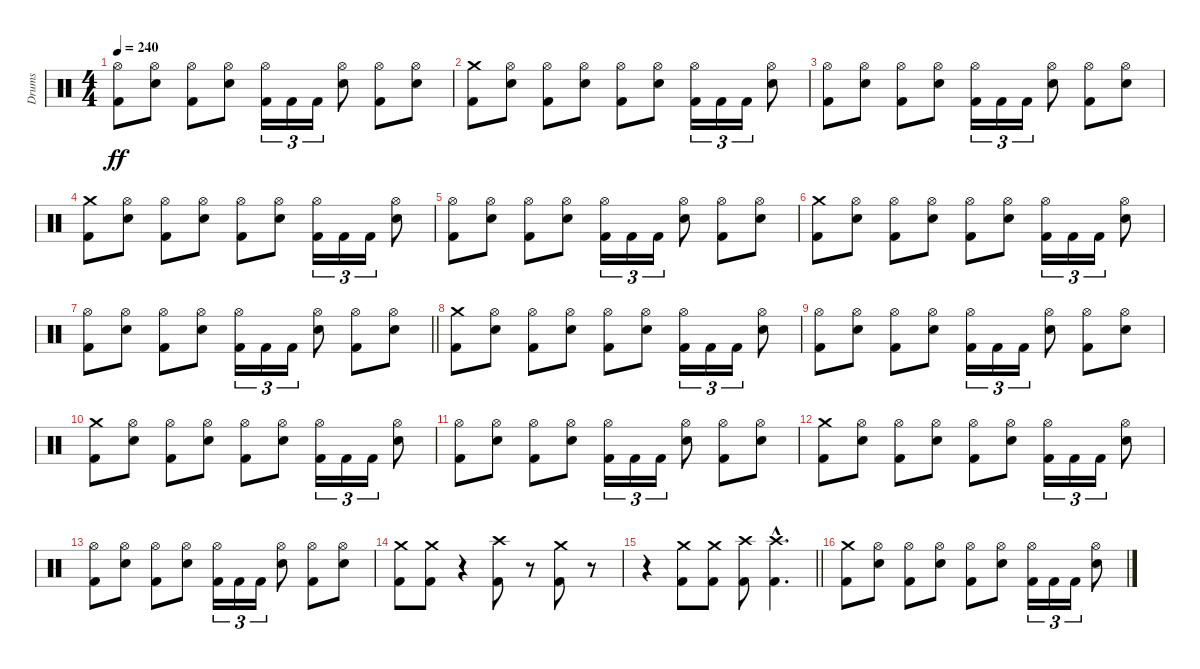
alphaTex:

\track ("Drums" "Drums") {instrument percussion}
\staff {score}
\articulation defaults
\ts (4 4)
\tempo 240
\clef neutral
\ks c
("Hi-Hat (open)" "Kick (hit) 2").8{dy ff} ("Hi-Hat (open)" "Snare (hit) 2").8 ("Hi-Hat (open)" "Kick (hit) 2").8 ("Hi-Hat (open)" "Snare (hit) 2").8 ("Hi-Hat (open)" "Kick (hit) 2").16{tu (3 2)} "Kick (hit) 2".16{tu (3 2)} "Kick (hit) 2".16{tu (3 2)} ("Hi-Hat (open)" "Snare (hit) 2").8 ("Hi-Hat (open)" "Kick (hit) 2").8 ("Hi-Hat (open)" "Snare (hit) 2").8 |
("Crash medium (hit)" "Kick (hit) 2").8 ("Hi-Hat (open)" "Snare (hit) 2").8 ("Hi-Hat (open)" "Kick (hit) 2").8 ("Hi-Hat (open)" "Snare (hit) 2").8 ("Hi-Hat (open)" "Kick (hit) 2").8 ("Hi-Hat (open)" "Snare (hit) 2").8 ("Hi-Hat (open)" "Kick (hit) 2").16{tu (3 2)} "Kick (hit) 2".16{tu (3 2)} "Kick (hit) 2".16{tu (3 2)} ("Hi-Hat (open)" "Snare (hit) 2").8 |
("Hi-Hat (open)" "Kick (hit) 2").8 ("Hi-Hat (open)" "Snare (hit) 2").8 ("Hi-Hat (open)" "Kick (hit) 2").8 ("Hi-Hat (open)" "Snare (hit) 2").8 ("Hi-Hat (open)" "Kick (hit) 2").16{tu (3 2)} "Kick (hit) 2".16{tu (3 2)} "Kick (hit) 2".16{tu (3 2)} ("Hi-Hat (open)" "Snare (hit) 2").8 ("Hi-Hat (open)" "Kick (hit) 2").8 ("Hi-Hat (open)" "Snare (hit) 2").8 |
("Crash medium (hit)" "Kick (hit) 2").8 ("Hi-Hat (open)" "Snare (hit) 2").8 ("Hi-Hat (open)" "Kick (hit) 2").8 ("Hi-Hat (open)" "Snare (hit) 2").8 ("Hi-Hat (open)" "Kick (hit) 2").8 ("Hi-Hat (open)" "Snare (hit) 2").8 ("Hi-Hat (open)" "Kick (hit) 2").16{tu (3 2)} "Kick (hit) 2".16{tu (3 2)} "Kick (hit) 2".16{tu (3 2)} ("Hi-Hat (open)" "Snare (hit) 2").8 |
("Hi-Hat (open)" "Kick (hit) 2").8 ("Hi-Hat (open)" "Snare (hit) 2").8 ("Hi-Hat (open)" "Kick (hit) 2").8 ("Hi-Hat (open)" "Snare (hit) 2").8 ("Hi-Hat (open)" "Kick (hit) 2").16{tu (3 2)} "Kick (hit) 2".16{tu (3 2)} "Kick (hit) 2".16{tu (3 2)} ("Hi-Hat (open)" "Snare (hit) 2").8 ("Hi-Hat (open)" "Kick (hit) 2").8 ("Hi-Hat (open)" "Snare (hit) 2").8 |
("Crash medium (hit)" "Kick (hit) 2").8 ("Hi-Hat (open)" "Snare (hit) 2").8 ("Hi-Hat (open)" "Kick (hit) 2").8 ("Hi-Hat (open)" "Snare (hit) 2").8 ("Hi-Hat (open)" "Kick (hit) 2").8 ("Hi-Hat (open)" "Snare (hit) 2").8 ("Hi-Hat (open)" "Kick (hit) 2").16{tu (3 2)} "Kick (hit) 2".16{tu (3 2)} "Kick (hit) 2".16{tu (3 2)} ("Hi-Hat (open)" "Snare (hit) 2").8 |
\barLineRight lightlight
("Hi-Hat (open)" "Kick (hit) 2").8 ("Hi-Hat (open)" "Snare (hit) 2").8 ("Hi-Hat (open)" "Kick (hit) 2").8 ("Hi-Hat (open)" "Snare (hit) 2").8 ("Hi-Hat (open)" "Kick (hit) 2").16{tu (3 2)} "Kick (hit) 2".16{tu (3 2)} "Kick (hit) 2".16{tu (3 2)} ("Hi-Hat (open)" "Snare (hit) 2").8 ("Hi-Hat (open)" "Kick (hit) 2").8 ("Hi-Hat (open)" "Snare (hit) 2").8 |
("Crash medium (hit)" "Kick (hit) 2").8 ("Hi-Hat (open)" "Snare (hit) 2").8 ("Hi-Hat (open)" "Kick (hit) 2").8 ("Hi-Hat (open)" "Snare (hit) 2").8 ("Hi-Hat (open)" "Kick (hit) 2").8 ("Hi-Hat (open)" "Snare (hit) 2").8 ("Hi-Hat (open)" "Kick (hit) 2").16{tu (3 2)} "Kick (hit) 2".16{tu (3 2)} "Kick (hit) 2".16{tu (3 2)} ("Hi-Hat (open)" "Snare (hit) 2").8 |
("Hi-Hat (open)" "Kick (hit) 2").8 ("Hi-Hat (open)" "Snare (hit) 2").8 ("Hi-Hat (open)" "Kick (hit) 2").8 ("Hi-Hat (open)" "Snare (hit) 2").8 ("Hi-Hat (open)" "Kick (hit) 2").16{tu (3 2)} "Kick (hit) 2".16{tu (3 2)} "Kick (hit) 2".16{tu (3 2)} ("Hi-Hat (open)" "Snare (hit) 2").8 ("Hi-Hat (open)" "Kick (hit) 2").8 ("Hi-Hat (open)" "Snare (hit) 2").8 |
("Crash medium (hit)" "Kick (hit) 2").8 ("Hi-Hat (open)" "Snare (hit) 2").8 ("Hi-Hat (open)" "Kick (hit) 2").8 ("Hi-Hat (open)" "Snare (hit) 2").8 ("Hi-Hat (open)" "Kick (hit) 2").8 ("Hi-Hat (open)" "Snare (hit) 2").8 ("Hi-Hat (open)" "Kick (hit) 2").16{tu (3 2)} "Kick (hit) 2".16{tu (3 2)} "Kick (hit) 2".16{tu (3 2)} ("Hi-Hat (open)" "Snare (hit) 2").8 |
("Hi-Hat (open)" "Kick (hit) 2").8 ("Hi-Hat (open)" "Snare (hit) 2").8 ("Hi-Hat (open)" "Kick (hit) 2").8 ("Hi-Hat (open)" "Snare (hit) 2").8 ("Hi-Hat (open)" "Kick (hit) 2").16{tu (3 2)} "Kick (hit) 2".16{tu (3 2)} "Kick (hit) 2".16{tu (3 2)} ("Hi-Hat (open)" "Snare (hit) 2").8 ("Hi-Hat (open)" "Kick (hit) 2").8 ("Hi-Hat (open)" "Snare (hit) 2").8 |
("Crash medium (hit)" "Kick (hit) 2").8 ("Hi-Hat (open)" "Snare (hit) 2").8 ("Hi-Hat (open)" "Kick (hit) 2").8 ("Hi-Hat (open)" "Snare (hit) 2").8 ("Hi-Hat (open)" "Kick (hit) 2").8 ("Hi-Hat (open)" "Snare (hit) 2").8 ("Hi-Hat (open)" "Kick (hit) 2").16{tu (3 2)} "Kick (hit) 2".16{tu (3 2)} "Kick (hit) 2".16{tu (3 2)} ("Hi-Hat (open)" "Snare (hit) 2").8 |
("Hi-Hat (open)" "Kick (hit) 2").8 ("Hi-Hat (open)" "Snare (hit) 2").8 ("Hi-Hat (open)" "Kick (hit) 2").8 ("Hi-Hat (open)" "Snare (hit) 2").8 ("Hi-Hat (open)" "Kick (hit) 2").16{tu (3 2)} "Kick (hit) 2".16{tu (3 2)} "Kick (hit) 2".16{tu (3 2)} ("Hi-Hat (open)" "Snare (hit) 2").8 ("Hi-Hat (open)" "Kick (hit) 2").8 ("Hi-Hat (open)" "Snare (hit) 2").8 |
("Crash medium (hit)" "Kick (hit) 2").8 ("Crash medium (hit)" "Kick (hit) 2").8 r.4 ("Crash high (hit)" "Kick (hit) 2").8 r.8 ("Crash medium (hit)" "Kick (hit) 2").8 r.8 |
\barLineRight lightlight
r.4 ("Crash medium (hit)" "Kick (hit) 2").8 ("Crash medium (hit)" "Kick (hit) 2").8 ("Crash high (hit)" "Kick (hit) 2").8 ("Crash high (hit)"{hac} "Kick (hit) 2"{hac}).4{d} |
("Crash medium (hit)" "Kick (hit) 2").8 ("Hi-Hat (open)" "Snare (hit) 2").8 ("Hi-Hat (open)" "Kick (hit) 2").8 ("Hi-Hat (open)" "Snare (hit) 2").8 ("Hi-Hat (open)" "Kick (hit) 2").8 ("Hi-Hat (open)" "Snare (hit) 2").8 ("Hi-Hat (open)" "Kick (hit) 2").16{tu (3 2)} "Kick (hit) 2".16{tu (3 2)} "Kick (hit) 2".16{tu (3 2)} ("Hi-Hat (open)" "Snare (hit) 2").8
